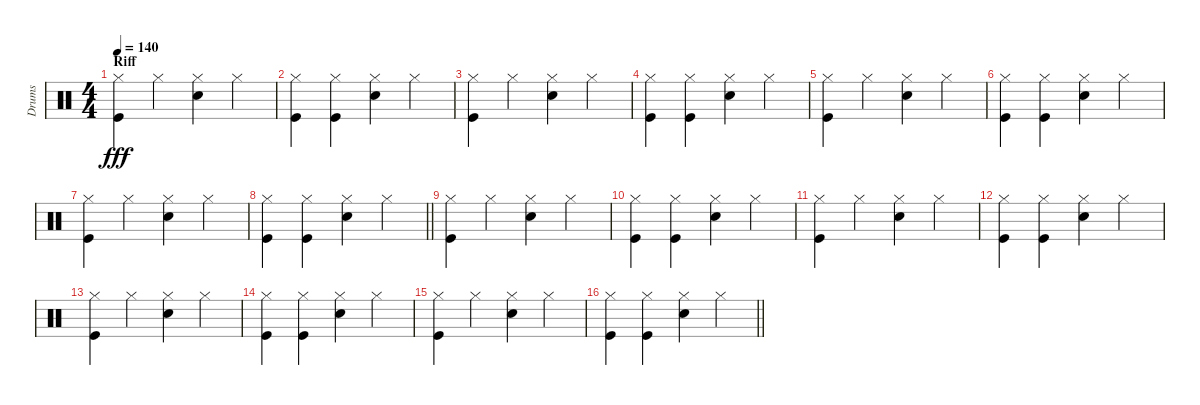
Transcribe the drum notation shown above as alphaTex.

\track ("Drums" "Drums") {instrument percussion}
\staff {score}
\articulation defaults
\ts (4 4)
\section ("" "Riff")
\tempo 140
\clef neutral
\ks c
("Hi-Hat (closed)" "Kick (hit)").4{dy fff} "Hi-Hat (closed)".4 ("Hi-Hat (closed)" "Snare (hit) 2").4 "Hi-Hat (closed)".4 |
("Hi-Hat (closed)" "Kick (hit)").4 ("Hi-Hat (closed)" "Kick (hit)").4 ("Hi-Hat (closed)" "Snare (hit) 2").4 "Hi-Hat (closed)".4 |
("Hi-Hat (closed)" "Kick (hit)").4 "Hi-Hat (closed)".4 ("Hi-Hat (closed)" "Snare (hit) 2").4 "Hi-Hat (closed)".4 |
("Hi-Hat (closed)" "Kick (hit)").4 ("Hi-Hat (closed)" "Kick (hit)").4 ("Hi-Hat (closed)" "Snare (hit) 2").4 "Hi-Hat (closed)".4 |
("Hi-Hat (closed)" "Kick (hit)").4 "Hi-Hat (closed)".4 ("Hi-Hat (closed)" "Snare (hit) 2").4 "Hi-Hat (closed)".4 |
("Hi-Hat (closed)" "Kick (hit)").4 ("Hi-Hat (closed)" "Kick (hit)").4 ("Hi-Hat (closed)" "Snare (hit) 2").4 "Hi-Hat (closed)".4 |
("Hi-Hat (closed)" "Kick (hit)").4 "Hi-Hat (closed)".4 ("Hi-Hat (closed)" "Snare (hit) 2").4 "Hi-Hat (closed)".4 |
\barLineRight lightlight
("Hi-Hat (closed)" "Kick (hit)").4 ("Hi-Hat (closed)" "Kick (hit)").4 ("Hi-Hat (closed)" "Snare (hit) 2").4 "Hi-Hat (closed)".4 |
("Hi-Hat (closed)" "Kick (hit)").4 "Hi-Hat (closed)".4 ("Hi-Hat (closed)" "Snare (hit) 2").4 "Hi-Hat (closed)".4 |
("Hi-Hat (closed)" "Kick (hit)").4 ("Hi-Hat (closed)" "Kick (hit)").4 ("Hi-Hat (closed)" "Snare (hit) 2").4 "Hi-Hat (closed)".4 |
("Hi-Hat (closed)" "Kick (hit)").4 "Hi-Hat (closed)".4 ("Hi-Hat (closed)" "Snare (hit) 2").4 "Hi-Hat (closed)".4 |
("Hi-Hat (closed)" "Kick (hit)").4 ("Hi-Hat (closed)" "Kick (hit)").4 ("Hi-Hat (closed)" "Snare (hit) 2").4 "Hi-Hat (closed)".4 |
("Hi-Hat (closed)" "Kick (hit)").4 "Hi-Hat (closed)".4 ("Hi-Hat (closed)" "Snare (hit) 2").4 "Hi-Hat (closed)".4 |
("Hi-Hat (closed)" "Kick (hit)").4 ("Hi-Hat (closed)" "Kick (hit)").4 ("Hi-Hat (closed)" "Snare (hit) 2").4 "Hi-Hat (closed)".4 |
("Hi-Hat (closed)" "Kick (hit)").4 "Hi-Hat (closed)".4 ("Hi-Hat (closed)" "Snare (hit) 2").4 "Hi-Hat (closed)".4 |
\barLineRight lightlight
("Hi-Hat (closed)" "Kick (hit)").4 ("Hi-Hat (closed)" "Kick (hit)").4 ("Hi-Hat (closed)" "Snare (hit) 2").4 "Hi-Hat (closed)".4
